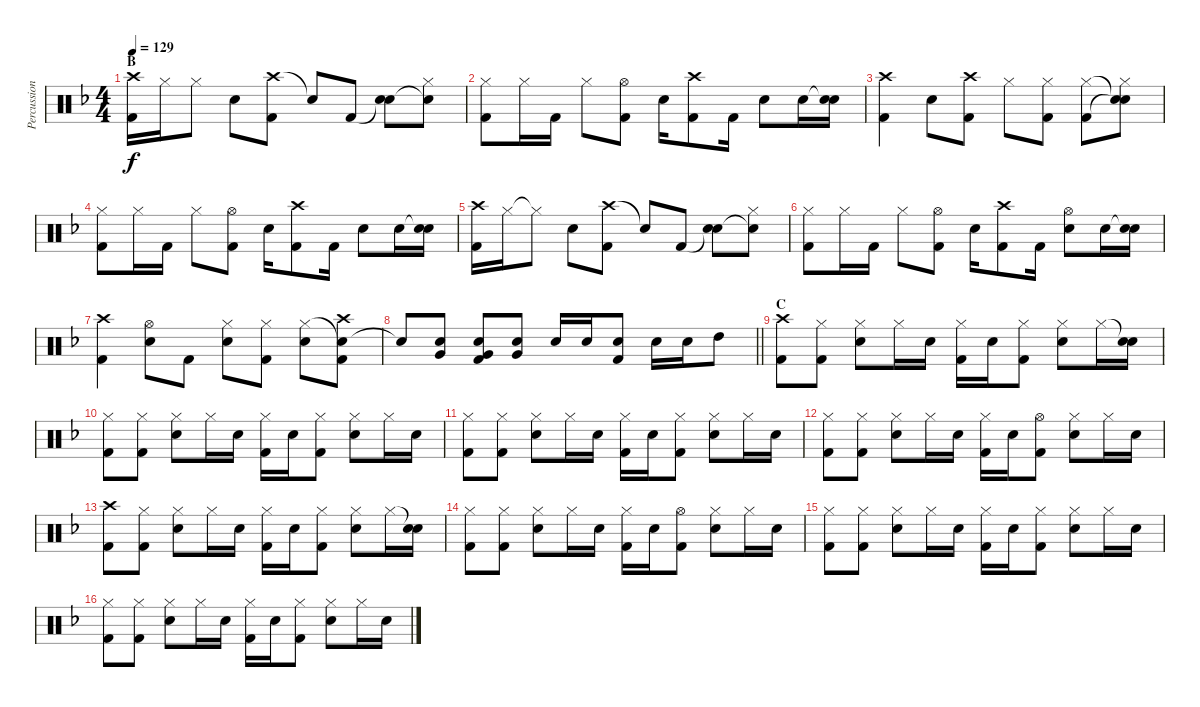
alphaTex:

\track ("Percussion" "Percussion") {instrument percussion}
\staff {score}
\articulation defaults
\ts (4 4)
\section ("" "B")
\tempo 129
\clef neutral
\ks f
("Crash high (hit)" "Kick (hit) 2").16{dy f} "Hi-Hat (closed)".16 "Hi-Hat (closed)".8 "Electric Snare (hit)".8 ("Crash high (hit)" "Kick (hit) 2").8 "Snare (hit)"{t}.8 "Kick (hit) 2".8 ("Snare (hit)"{t} "Electric Snare (hit)").8 ("Snare (hit)"{t} "Hi-Hat (closed)").8 |
("Hi-Hat (closed)" "Kick (hit) 2").8 "Hi-Hat (closed)".16 "Kick (hit) 2".16 "Hi-Hat (closed)".8 ("Hi-Hat (open)" "Kick (hit) 2").8 "Electric Snare (hit)".16 ("Crash high (hit)" "Kick (hit) 2").8 "Kick (hit) 2".16 "Electric Snare (hit)".8 "Electric Snare (hit)".16 ("Snare (hit)"{t} "Electric Snare (hit)").16 |
("Crash high (hit)" "Kick (hit) 2").4 "Electric Snare (hit)".8 ("Crash high (hit)" "Kick (hit) 2").8 "Hi-Hat (closed)".8 ("Hi-Hat (closed)" "Kick (hit) 2").8 ("Hi-Hat (closed)" "Kick (hit) 2").8 ("Snare (hit)"{t} "Snare (hit)"{t} "Hi-Hat (closed)").8 |
("Hi-Hat (closed)" "Kick (hit) 2").8 "Hi-Hat (closed)".16 "Kick (hit) 2".16 "Hi-Hat (closed)".8 ("Hi-Hat (open)" "Kick (hit) 2").8 "Electric Snare (hit)".16 ("Crash high (hit)" "Kick (hit) 2").8 "Kick (hit) 2".16 "Electric Snare (hit)".8 "Electric Snare (hit)".16 ("Snare (hit)"{t} "Electric Snare (hit)").16 |
("Crash high (hit)" "Kick (hit) 2").16 "Hi-Hat (closed)".16 "Hi-Hat (closed)"{t}.8 "Electric Snare (hit)".8 ("Crash high (hit)" "Kick (hit) 2").8 "Snare (hit)"{t}.8 "Kick (hit) 2".8 ("Snare (hit)"{t} "Electric Snare (hit)").8 ("Snare (hit)"{t} "Hi-Hat (closed)").8 |
("Hi-Hat (closed)" "Kick (hit) 2").8 "Hi-Hat (closed)".16 "Kick (hit) 2".16 "Hi-Hat (closed)".8 ("Hi-Hat (open)" "Kick (hit) 2").8 "Electric Snare (hit)".16 ("Crash high (hit)" "Kick (hit) 2").8 "Kick (hit) 2".16 ("Electric Snare (hit)" "Hi-Hat (open)").8 "Electric Snare (hit)".16 ("Snare (hit)"{t} "Electric Snare (hit)").16 |
("Crash high (hit)" "Kick (hit) 2").4 ("Hi-Hat (open)" "Electric Snare (hit)").8 "Kick (hit) 2".8 ("Hi-Hat (closed)" "Electric Snare (hit)").8 ("Hi-Hat (closed)" "Kick (hit) 2").8 ("Hi-Hat (closed)" "Electric Snare (hit)").8 ("Snare (hit)"{t} "Crash high (hit)" "Kick (hit) 2").8 |
\barLineRight lightlight "Snare (hit)"{t}.8
("Electric Snare (hit)" "Very Low Tom (hit)").8 ("Electric Snare (hit)" "Very Low Tom (hit)" "Kick (hit) 2").8 ("Electric Snare (hit)" "Very Low Tom (hit)").8 "Electric Snare (hit)".16 "Electric Snare (hit)".16 ("Electric Snare (hit)" "Kick (hit) 2").8 "Electric Snare (hit)".16 "Electric Snare (hit)".16 "High Tom (hit)".8 |
\section ("" "C")
("Crash high (hit)" "Kick (hit) 2").8 ("Hi-Hat (closed)" "Kick (hit) 2").8 ("Hi-Hat (closed)" "Electric Snare (hit)").8 "Hi-Hat (closed)".16 "Electric Snare (hit)".16 ("Hi-Hat (closed)" "Kick (hit) 2").16 "Electric Snare (hit)".16 ("Hi-Hat (closed)" "Kick (hit) 2").8 ("Hi-Hat (closed)" "Electric Snare (hit)").8 "Hi-Hat (closed)".16 ("Snare (hit)"{t} "Electric Snare (hit)").16 |
("Hi-Hat (closed)" "Kick (hit) 2").8 ("Hi-Hat (closed)" "Kick (hit) 2").8 ("Hi-Hat (closed)" "Electric Snare (hit)").8 "Hi-Hat (closed)".16 "Electric Snare (hit)".16 ("Hi-Hat (closed)" "Kick (hit) 2").16 "Electric Snare (hit)".16 ("Hi-Hat (closed)" "Kick (hit) 2").8 ("Hi-Hat (closed)" "Electric Snare (hit)").8 "Hi-Hat (closed)".16 "Electric Snare (hit)".16 |
("Hi-Hat (closed)" "Kick (hit) 2").8 ("Hi-Hat (closed)" "Kick (hit) 2").8 ("Hi-Hat (closed)" "Electric Snare (hit)").8 "Hi-Hat (closed)".16 "Electric Snare (hit)".16 ("Hi-Hat (closed)" "Kick (hit) 2").16 "Electric Snare (hit)".16 ("Hi-Hat (closed)" "Kick (hit) 2").8 ("Hi-Hat (closed)" "Electric Snare (hit)").8 "Hi-Hat (closed)".16 "Electric Snare (hit)".16 |
("Hi-Hat (closed)" "Kick (hit) 2").8 ("Hi-Hat (closed)" "Kick (hit) 2").8 ("Hi-Hat (closed)" "Electric Snare (hit)").8 "Hi-Hat (closed)".16 "Electric Snare (hit)".16 ("Hi-Hat (closed)" "Kick (hit) 2").16 "Electric Snare (hit)".16 ("Hi-Hat (open)" "Kick (hit) 2").8 ("Hi-Hat (closed)" "Electric Snare (hit)").8 "Hi-Hat (closed)".16 "Electric Snare (hit)".16 |
("Crash high (hit)" "Kick (hit) 2").8 ("Hi-Hat (closed)" "Kick (hit) 2").8 ("Hi-Hat (closed)" "Electric Snare (hit)").8 "Hi-Hat (closed)".16 "Electric Snare (hit)".16 ("Hi-Hat (closed)" "Kick (hit) 2").16 "Electric Snare (hit)".16 ("Hi-Hat (closed)" "Kick (hit) 2").8 ("Hi-Hat (closed)" "Electric Snare (hit)").8 "Hi-Hat (closed)".16 ("Snare (hit)"{t} "Electric Snare (hit)").16 |
("Hi-Hat (closed)" "Kick (hit) 2").8 ("Hi-Hat (closed)" "Kick (hit) 2").8 ("Hi-Hat (closed)" "Electric Snare (hit)").8 "Hi-Hat (closed)".16 "Electric Snare (hit)".16 ("Hi-Hat (closed)" "Kick (hit) 2").16 "Electric Snare (hit)".16 ("Hi-Hat (open)" "Kick (hit) 2").8 ("Hi-Hat (closed)" "Electric Snare (hit)").8 "Hi-Hat (closed)".16 "Electric Snare (hit)".16 |
("Hi-Hat (closed)" "Kick (hit) 2").8 ("Hi-Hat (closed)" "Kick (hit) 2").8 ("Hi-Hat (closed)" "Electric Snare (hit)").8 "Hi-Hat (closed)".16 "Electric Snare (hit)".16 ("Hi-Hat (closed)" "Kick (hit) 2").16 "Electric Snare (hit)".16 ("Hi-Hat (closed)" "Kick (hit) 2").8 ("Hi-Hat (closed)" "Electric Snare (hit)").8 "Hi-Hat (closed)".16 "Electric Snare (hit)".16 |
("Hi-Hat (closed)" "Kick (hit) 2").8 ("Hi-Hat (closed)" "Kick (hit) 2").8 ("Hi-Hat (closed)" "Electric Snare (hit)").8 "Hi-Hat (closed)".16 "Electric Snare (hit)".16 ("Hi-Hat (closed)" "Kick (hit) 2").16 "Electric Snare (hit)".16 ("Hi-Hat (closed)" "Kick (hit) 2").8 ("Hi-Hat (closed)" "Electric Snare (hit)").8 "Hi-Hat (closed)".16 "Electric Snare (hit)".16
